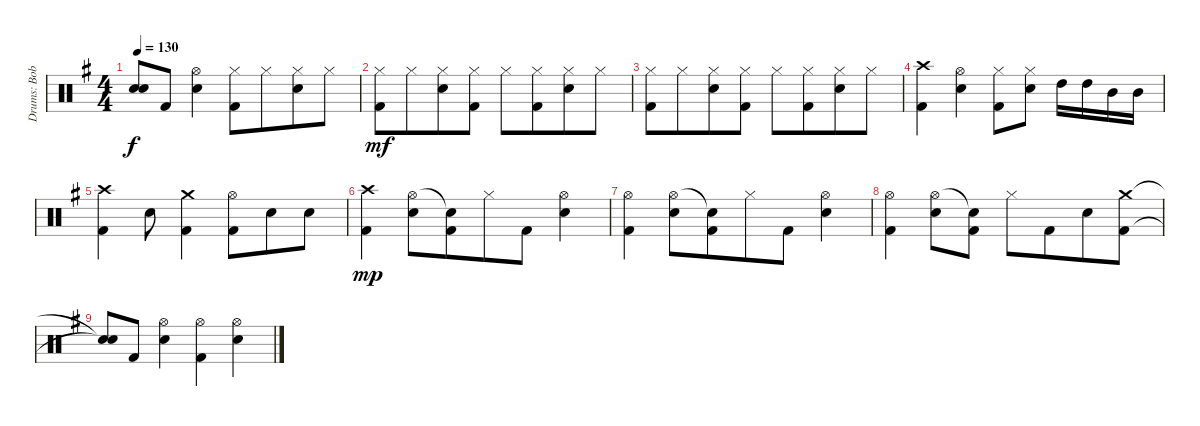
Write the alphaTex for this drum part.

\track ("Drums: Bobby" "Drums: Bob") {instrument percussion}
\staff {score}
\articulation defaults
\ts (4 4)
\tempo 130
\clef neutral
\ks g
("Snare (hit)"{t} "Snare (hit)"{t}).8{dy f} "Kick (hit) 2".8 ("Hi-Hat (open)" "Snare (hit) 2").4 ("Hi-Hat (closed)" "Kick (hit) 2").8 "Hi-Hat (closed)".8{beam merge} ("Hi-Hat (closed)" "Snare (hit) 2").8 "Hi-Hat (closed)".8 |
("Hi-Hat (closed)" "Kick (hit) 2").8{dy mf} "Hi-Hat (closed)".8{beam merge} ("Hi-Hat (closed)" "Snare (hit) 2").8 ("Hi-Hat (closed)" "Kick (hit) 2").8 "Hi-Hat (closed)".8 ("Hi-Hat (closed)" "Kick (hit) 2").8{beam merge} ("Hi-Hat (closed)" "Snare (hit) 2").8 "Hi-Hat (closed)".8 |
("Hi-Hat (closed)" "Kick (hit) 2").8 "Hi-Hat (closed)".8{beam merge} ("Hi-Hat (closed)" "Snare (hit) 2").8 ("Hi-Hat (closed)" "Kick (hit) 2").8 "Hi-Hat (closed)".8 ("Hi-Hat (closed)" "Kick (hit) 2").8{beam merge} ("Hi-Hat (closed)" "Snare (hit) 2").8 "Hi-Hat (closed)".8 |
("Crash high (hit)" "Kick (hit) 2").4 ("Hi-Hat (open)" "Snare (hit) 2").4 ("Hi-Hat (closed)" "Kick (hit) 2").8 ("Hi-Hat (closed)" "Snare (hit) 2").8 "High Tom (hit)".16 "High Tom (hit)".16 "Mid Tom (hit)".16 "Mid Tom (hit)".16 |
("Crash high (hit)" "Kick (hit) 2").4 "Snare (hit) 2".8 ("Crash medium (hit)" "Kick (hit) 2").4 ("Hi-Hat (open)" "Kick (hit) 2").8{beam merge} "Snare (hit) 2".8 "Snare (hit) 2".8 |
("Crash high (hit)" "Kick (hit) 2").4{dy mp} ("Hi-Hat (open)" "Snare (hit) 2").8 ("Snare (hit)"{t} "Kick (hit) 2").8{beam merge} "Hi-Hat (closed)".8 "Kick (hit) 2".8 ("Hi-Hat (open)" "Snare (hit) 2").4 |
("Hi-Hat (open)" "Kick (hit) 2").4 ("Hi-Hat (open)" "Snare (hit) 2").8 ("Snare (hit)"{t} "Kick (hit) 2").8{beam merge} "Hi-Hat (closed)".8 "Kick (hit) 2".8 ("Hi-Hat (open)" "Snare (hit) 2").4 |
("Hi-Hat (open)" "Kick (hit) 2").4 ("Hi-Hat (open)" "Snare (hit) 2").8 ("Snare (hit)"{t} "Kick (hit) 2").8{beam split} "Hi-Hat (closed)".8 "Kick (hit) 2".8{beam merge} "Snare (hit) 2".8 ("Crash medium (hit)" "Kick (hit) 2").8 |
("Snare (hit)"{t} "Snare (hit)"{t}).8 "Kick (hit) 2".8 ("Hi-Hat (open)" "Snare (hit) 2").4 ("Hi-Hat (open)" "Kick (hit) 2").4{beam merge} ("Hi-Hat (open)" "Snare (hit) 2").4
